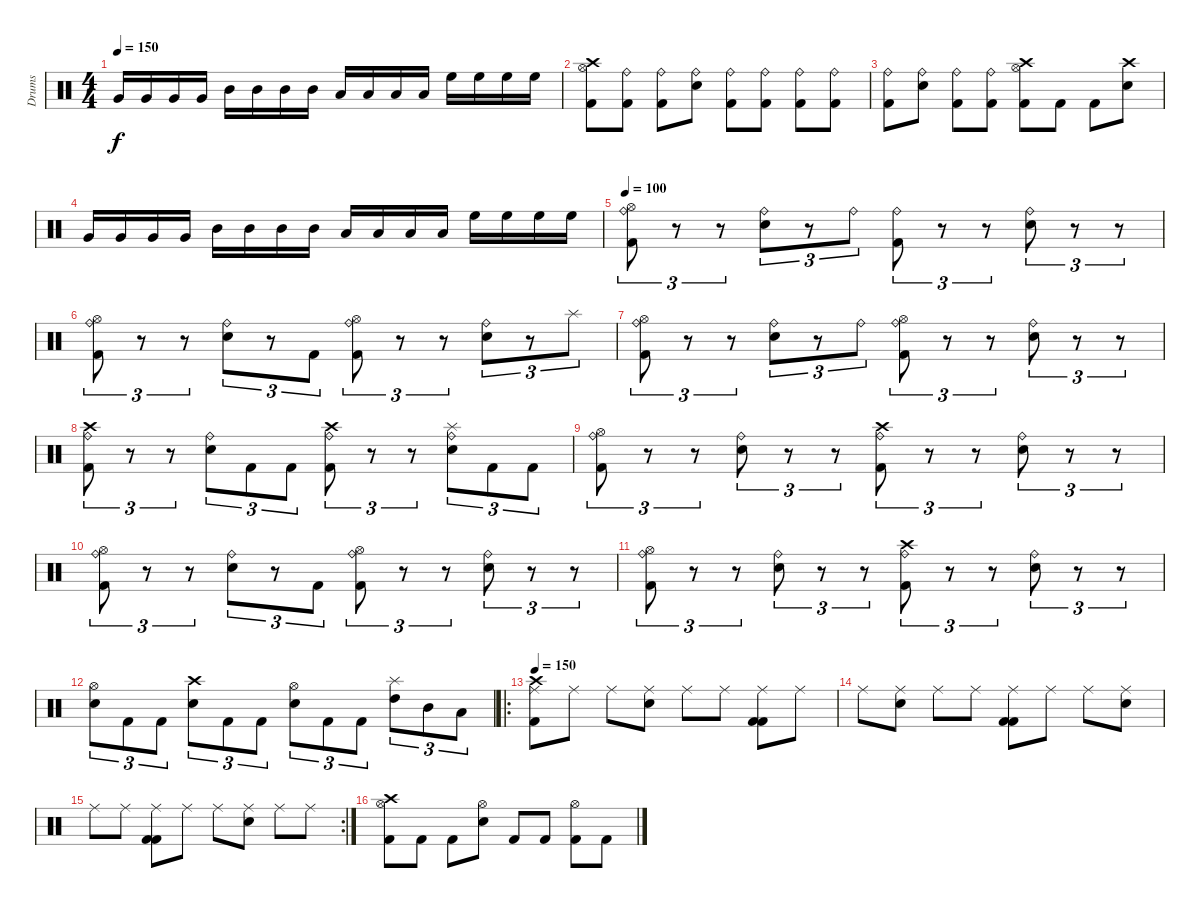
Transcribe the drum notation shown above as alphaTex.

\track ("Drums" "Drums") {instrument percussion}
\staff {score}
\articulation defaults
\ts (4 4)
\tempo 150
\clef neutral
\ks c "Very Low Tom (hit)".16{dy f} "Very Low Tom (hit)".16 "Very Low Tom (hit)".16 "Very Low Tom (hit)".16 "Mid Tom (hit)".16 "Mid Tom (hit)".16 "Mid Tom (hit)".16 "Mid Tom (hit)".16 "Low Tom (hit)".16 "Low Tom (hit)".16 "Low Tom (hit)".16 "Low Tom (hit)".16 "High Floor Tom (hit)".16 "High Floor Tom (hit)".16 "High Floor Tom (hit)".16 "High Floor Tom (hit)".16
|
("Crash high (hit)" "Kick (hit) 2" "Hi-Hat (open)").8 ("Ride (bell)" "Kick (hit) 2").8 ("Ride (bell)" "Kick (hit) 2").8 ("Ride (bell)" "Snare (hit) 2").8 ("Ride (bell)" "Kick (hit) 2").8 ("Ride (bell)" "Kick (hit) 2").8 ("Ride (bell)" "Kick (hit) 2").8 ("Ride (bell)" "Kick (hit) 2").8 |
("Ride (bell)" "Kick (hit) 2").8 ("Ride (bell)" "Snare (hit) 2").8 ("Ride (bell)" "Kick (hit) 2").8 ("Ride (bell)" "Kick (hit) 2").8 ("Crash high (hit)" "Hi-Hat (open)" "Kick (hit) 2").8 "Kick (hit) 2".8 "Kick (hit) 2".8 ("Crash high (hit)" "Snare (hit) 2").8 |
"Very Low Tom (hit)".16 "Very Low Tom (hit)".16 "Very Low Tom (hit)".16 "Very Low Tom (hit)".16 "Mid Tom (hit)".16 "Mid Tom (hit)".16 "Mid Tom (hit)".16 "Mid Tom (hit)".16 "Low Tom (hit)".16 "Low Tom (hit)".16 "Low Tom (hit)".16 "Low Tom (hit)".16 "High Floor Tom (hit)".16 "High Floor Tom (hit)".16 "High Floor Tom (hit)".16 "High Floor Tom (hit)".16 |
\tempo 100
("Hi-Hat (open)" "Ride (bell)" "Kick (hit) 2").8{tu (3 2)} r.8{tu (3 2)} r.8{tu (3 2)} ("Ride (bell)" "Electric Snare (hit)").8{tu (3 2)} r.8{tu (3 2)} "Ride (bell)".8{tu (3 2)} ("Ride (bell)" "Kick (hit) 2").8{tu (3 2)} r.8{tu (3 2)} r.8{tu (3 2)} ("Ride (bell)" "Electric Snare (hit)").8{tu (3 2)} r.8{tu (3 2)} r.8{tu (3 2)} |
("Hi-Hat (open)" "Ride (bell)" "Kick (hit) 2").8{tu (3 2)} r.8{tu (3 2)} r.8{tu (3 2)} ("Ride (bell)" "Electric Snare (hit)").8{tu (3 2)} r.8{tu (3 2)} "Kick (hit) 2".8{tu (3 2)} ("Hi-Hat (open)" "Ride (bell)" "Kick (hit) 2").8{tu (3 2)} r.8{tu (3 2)} r.8{tu (3 2)} ("Ride (bell)" "Electric Snare (hit)").8{tu (3 2)} r.8{tu (3 2)} "Splash (hit)".8{tu (3 2)} |
("Hi-Hat (open)" "Ride (bell)" "Kick (hit) 2").8{tu (3 2)} r.8{tu (3 2)} r.8{tu (3 2)} ("Ride (bell)" "Electric Snare (hit)").8{tu (3 2)} r.8{tu (3 2)} "Ride (bell)".8{tu (3 2)} ("Hi-Hat (open)" "Ride (bell)" "Kick (hit) 2").8{tu (3 2)} r.8{tu (3 2)} r.8{tu (3 2)} ("Ride (bell)" "Electric Snare (hit)").8{tu (3 2)} r.8{tu (3 2)} r.8{tu (3 2)} |
("Crash high (hit)" "Ride (bell)" "Kick (hit) 2").8{tu (3 2)} r.8{tu (3 2)} r.8{tu (3 2)} ("Ride (bell)" "Electric Snare (hit)").8{tu (3 2)} "Kick (hit) 2".8{tu (3 2)} "Kick (hit) 2".8{tu (3 2)} ("Crash high (hit)" "Ride (bell)" "Kick (hit) 2").8{tu (3 2)} r.8{tu (3 2)} r.8{tu (3 2)} ("Splash (hit)" "Ride (bell)" "Electric Snare (hit)").8{tu (3 2)} "Kick (hit) 2".8{tu (3 2)} "Kick (hit) 2".8{tu (3 2)} |
("Hi-Hat (open)" "Ride (bell)" "Kick (hit) 2").8{tu (3 2)} r.8{tu (3 2)} r.8{tu (3 2)} ("Ride (bell)" "Electric Snare (hit)").8{tu (3 2)} r.8{tu (3 2)} r.8{tu (3 2)} ("Crash high (hit)" "Ride (bell)" "Kick (hit) 2").8{tu (3 2)} r.8{tu (3 2)} r.8{tu (3 2)} ("Ride (bell)" "Electric Snare (hit)").8{tu (3 2)} r.8{tu (3 2)} r.8{tu (3 2)} |
("Hi-Hat (open)" "Ride (bell)" "Kick (hit) 2").8{tu (3 2)} r.8{tu (3 2)} r.8{tu (3 2)} ("Ride (bell)" "Electric Snare (hit)").8{tu (3 2)} r.8{tu (3 2)} "Kick (hit) 2".8{tu (3 2)} ("Hi-Hat (open)" "Ride (bell)" "Kick (hit) 2").8{tu (3 2)} r.8{tu (3 2)} r.8{tu (3 2)} ("Ride (bell)" "Electric Snare (hit)").8{tu (3 2)} r.8{tu (3 2)} r.8{tu (3 2)} |
("Hi-Hat (open)" "Ride (bell)" "Kick (hit) 2").8{tu (3 2)} r.8{tu (3 2)} r.8{tu (3 2)} ("Ride (bell)" "Electric Snare (hit)").8{tu (3 2)} r.8{tu (3 2)} r.8{tu (3 2)} ("Crash high (hit)" "Ride (bell)" "Kick (hit) 2").8{tu (3 2)} r.8{tu (3 2)} r.8{tu (3 2)} ("Ride (bell)" "Electric Snare (hit)").8{tu (3 2)} r.8{tu (3 2)} r.8{tu (3 2)} |
("Hi-Hat (open)" "Electric Snare (hit)").8{tu (3 2)} "Kick (hit) 2".8{tu (3 2)} "Kick (hit) 2".8{tu (3 2)} ("Crash high (hit)" "Electric Snare (hit)").8{tu (3 2)} "Kick (hit) 2".8{tu (3 2)} "Kick (hit) 2".8{tu (3 2)} ("Hi-Hat (open)" "Electric Snare (hit)").8{tu (3 2)} "Kick (hit) 2".8{tu (3 2)} "Kick (hit) 2".8{tu (3 2)} ("Splash (hit)" "High Tom (hit)").8{tu (3 2)} "Mid Tom (hit)".8{tu (3 2)} "Low Tom (hit)".8{tu (3 2)} |
\ro
\tempo 150
("Crash high (hit)" "Kick (hit) 2" "Ride (middle)").8 "Ride (middle)".8 "Ride (middle)".8 ("Snare (hit) 2" "Ride (middle)").8 "Ride (middle)".8 "Ride (middle)".8 ("Kick (hit) 2" "Kick (hit) 2" "Ride (middle)").8 "Ride (middle)".8 |
"Ride (middle)".8 ("Snare (hit) 2" "Ride (middle)").8 "Ride (middle)".8 "Ride (middle)".8 ("Kick (hit) 2" "Kick (hit) 2" "Ride (middle)").8 "Ride (middle)".8 "Ride (middle)".8 ("Snare (hit) 2" "Ride (middle)").8 |
\rc 2 "Ride (middle)".8 "Ride (middle)".8
("Kick (hit) 2" "Kick (hit) 2" "Ride (middle)").8 "Ride (middle)".8 "Ride (middle)".8 ("Snare (hit) 2" "Ride (middle)").8 "Ride (middle)".8 "Ride (middle)".8 |
("Crash high (hit)" "Kick (hit) 2" "Hi-Hat (open)").8 "Kick (hit) 2".8 "Kick (hit) 2".8 ("Hi-Hat (open)" "Snare (hit) 2").8 "Kick (hit) 2".8 "Kick (hit) 2".8 ("Hi-Hat (open)" "Kick (hit) 2").8 "Kick (hit) 2".8
